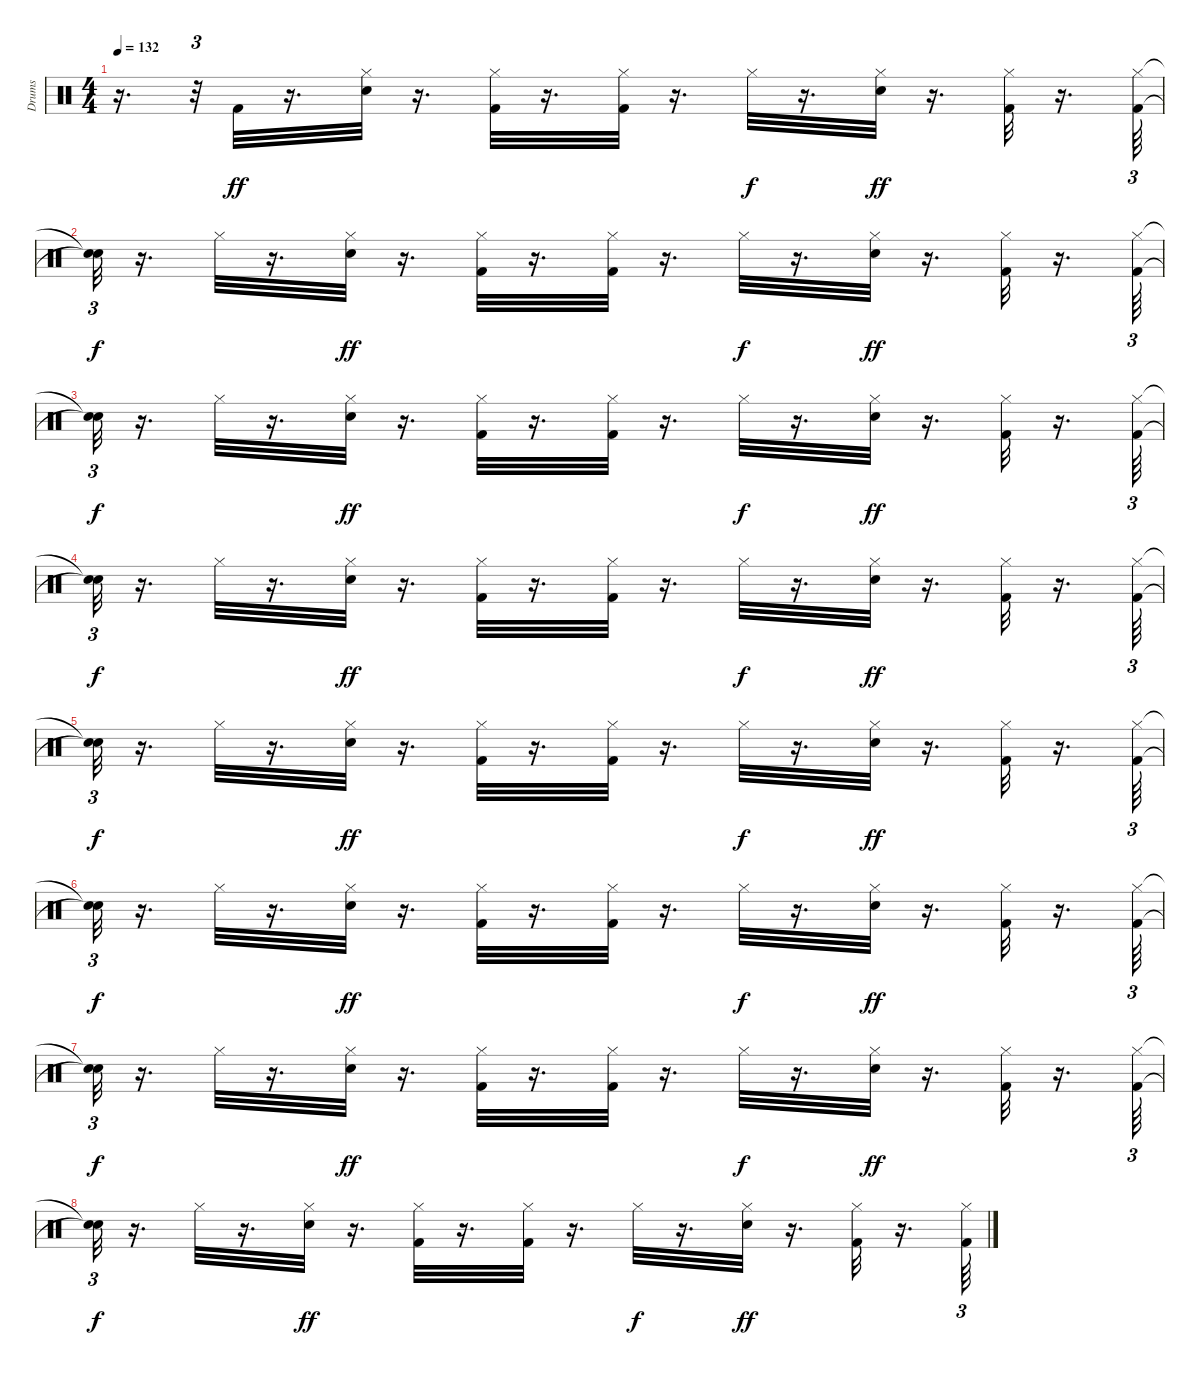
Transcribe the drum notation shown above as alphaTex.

\track ("Drums" "Drums") {instrument percussion}
\staff {score}
\articulation defaults
\ts (4 4)
\tempo 132
\clef neutral
\ks c
r.16{d dy fff} r.32{tu (3 2)} "Kick (hit) 2".32{dy ff} r.16{d} ("Snare (hit) 2" "Hi-Hat (closed)").32 r.16{d} ("Kick (hit) 2" "Hi-Hat (closed)").32 r.16{d} ("Kick (hit) 2" "Hi-Hat (closed)").32 r.16{d} "Hi-Hat (closed)".32{dy f} r.16{d} ("Snare (hit) 2" "Hi-Hat (closed)").32{dy ff} r.16{d} ("Kick (hit) 2" "Hi-Hat (closed)").32 r.16{d} ("Kick (hit) 2" "Hi-Hat (closed)").64{tu (3 2)} |
("Snare (hit)"{t} "Snare (hit)"{t}).32{tu (3 2) dy f} r.16{d} "Hi-Hat (closed)".32 r.16{d} ("Snare (hit) 2" "Hi-Hat (closed)").32{dy ff} r.16{d} ("Kick (hit) 2" "Hi-Hat (closed)").32 r.16{d} ("Kick (hit) 2" "Hi-Hat (closed)").32 r.16{d} "Hi-Hat (closed)".32{dy f} r.16{d} ("Snare (hit) 2" "Hi-Hat (closed)").32{dy ff} r.16{d} ("Kick (hit) 2" "Hi-Hat (closed)").32 r.16{d} ("Kick (hit) 2" "Hi-Hat (closed)").64{tu (3 2)} |
("Snare (hit)"{t} "Snare (hit)"{t}).32{tu (3 2) dy f} r.16{d} "Hi-Hat (closed)".32 r.16{d} ("Snare (hit) 2" "Hi-Hat (closed)").32{dy ff} r.16{d} ("Kick (hit) 2" "Hi-Hat (closed)").32 r.16{d} ("Kick (hit) 2" "Hi-Hat (closed)").32 r.16{d} "Hi-Hat (closed)".32{dy f} r.16{d} ("Snare (hit) 2" "Hi-Hat (closed)").32{dy ff} r.16{d} ("Kick (hit) 2" "Hi-Hat (closed)").32 r.16{d} ("Kick (hit) 2" "Hi-Hat (closed)").64{tu (3 2)} |
("Snare (hit)"{t} "Snare (hit)"{t}).32{tu (3 2) dy f} r.16{d} "Hi-Hat (closed)".32 r.16{d} ("Snare (hit) 2" "Hi-Hat (closed)").32{dy ff} r.16{d} ("Kick (hit) 2" "Hi-Hat (closed)").32 r.16{d} ("Kick (hit) 2" "Hi-Hat (closed)").32 r.16{d} "Hi-Hat (closed)".32{dy f} r.16{d} ("Snare (hit) 2" "Hi-Hat (closed)").32{dy ff} r.16{d} ("Kick (hit) 2" "Hi-Hat (closed)").32 r.16{d} ("Kick (hit) 2" "Hi-Hat (closed)").64{tu (3 2)} |
("Snare (hit)"{t} "Snare (hit)"{t}).32{tu (3 2) dy f} r.16{d} "Hi-Hat (closed)".32 r.16{d} ("Snare (hit) 2" "Hi-Hat (closed)").32{dy ff} r.16{d} ("Kick (hit) 2" "Hi-Hat (closed)").32 r.16{d} ("Kick (hit) 2" "Hi-Hat (closed)").32 r.16{d} "Hi-Hat (closed)".32{dy f} r.16{d} ("Snare (hit) 2" "Hi-Hat (closed)").32{dy ff} r.16{d} ("Kick (hit) 2" "Hi-Hat (closed)").32 r.16{d} ("Kick (hit) 2" "Hi-Hat (closed)").64{tu (3 2)} |
("Snare (hit)"{t} "Snare (hit)"{t}).32{tu (3 2) dy f} r.16{d} "Hi-Hat (closed)".32 r.16{d} ("Snare (hit) 2" "Hi-Hat (closed)").32{dy ff} r.16{d} ("Kick (hit) 2" "Hi-Hat (closed)").32 r.16{d} ("Kick (hit) 2" "Hi-Hat (closed)").32 r.16{d} "Hi-Hat (closed)".32{dy f} r.16{d} ("Snare (hit) 2" "Hi-Hat (closed)").32{dy ff} r.16{d} ("Kick (hit) 2" "Hi-Hat (closed)").32 r.16{d} ("Kick (hit) 2" "Hi-Hat (closed)").64{tu (3 2)} |
("Snare (hit)"{t} "Snare (hit)"{t}).32{tu (3 2) dy f} r.16{d} "Hi-Hat (closed)".32 r.16{d} ("Snare (hit) 2" "Hi-Hat (closed)").32{dy ff} r.16{d} ("Kick (hit) 2" "Hi-Hat (closed)").32 r.16{d} ("Kick (hit) 2" "Hi-Hat (closed)").32 r.16{d} "Hi-Hat (closed)".32{dy f} r.16{d} ("Snare (hit) 2" "Hi-Hat (closed)").32{dy ff} r.16{d} ("Kick (hit) 2" "Hi-Hat (closed)").32 r.16{d} ("Kick (hit) 2" "Hi-Hat (closed)").64{tu (3 2)} |
("Snare (hit)"{t} "Snare (hit)"{t}).32{tu (3 2) dy f} r.16{d} "Hi-Hat (closed)".32 r.16{d} ("Snare (hit) 2" "Hi-Hat (closed)").32{dy ff} r.16{d} ("Kick (hit) 2" "Hi-Hat (closed)").32 r.16{d} ("Kick (hit) 2" "Hi-Hat (closed)").32 r.16{d} "Hi-Hat (closed)".32{dy f} r.16{d} ("Snare (hit) 2" "Hi-Hat (closed)").32{dy ff} r.16{d} ("Kick (hit) 2" "Hi-Hat (closed)").32 r.16{d} ("Kick (hit) 2" "Hi-Hat (closed)").64{tu (3 2)}
